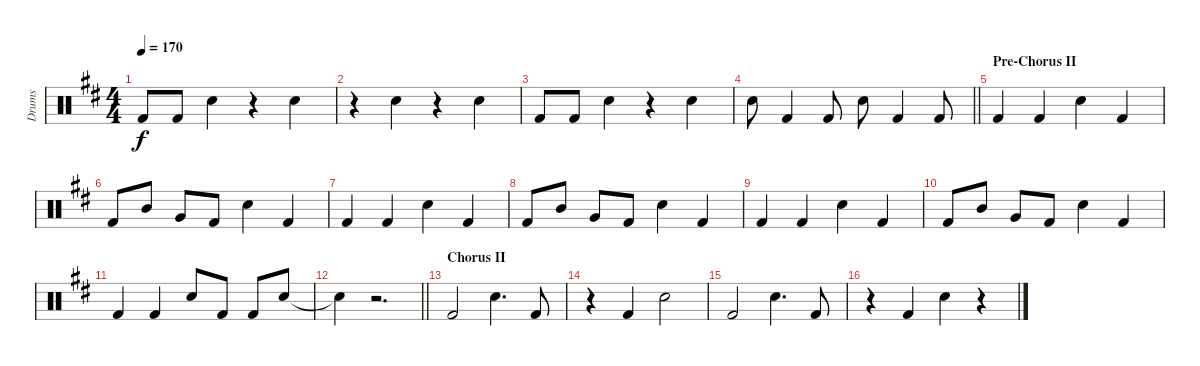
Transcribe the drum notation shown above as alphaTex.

\track ("Drums" "Drums") {instrument percussion}
\staff {score}
\articulation defaults
\ts (4 4)
\tempo 170
\clef neutral
\ks d "Kick (hit) 2".8{dy f} "Kick (hit) 2".8 "Electric Snare (hit)".4
r.4 "Electric Snare (hit)".4 |
r.4 "Electric Snare (hit)".4 r.4 "Electric Snare (hit)".4 |
"Kick (hit) 2".8 "Kick (hit) 2".8 "Electric Snare (hit)".4 r.4 "Electric Snare (hit)".4 |
\barLineRight lightlight "Electric Snare (hit)".8 "Kick (hit) 2".4 "Kick (hit) 2".8 "Electric Snare (hit)".8 "Kick (hit) 2".4 "Kick (hit) 2".8
|
\section ("" "Pre-Chorus II")
"Kick (hit) 2".4 "Kick (hit) 2".4 "Snare (hit) 2".4 "Kick (hit) 2".4 |
"Kick (hit) 2".8 "Mid Tom (hit)".8 "Very Low Tom (hit)".8 "Kick (hit) 2".8 "Electric Snare (hit)".4 "Kick (hit) 2".4 |
"Kick (hit) 2".4 "Kick (hit) 2".4 "Snare (hit) 2".4 "Kick (hit) 2".4 |
"Kick (hit) 2".8 "Mid Tom (hit)".8 "Very Low Tom (hit)".8 "Kick (hit) 2".8 "Electric Snare (hit)".4 "Kick (hit) 2".4 |
"Kick (hit) 2".4 "Kick (hit) 2".4 "Snare (hit) 2".4 "Kick (hit) 2".4 |
"Kick (hit) 2".8 "Mid Tom (hit)".8 "Very Low Tom (hit)".8 "Kick (hit) 2".8 "Electric Snare (hit)".4 "Kick (hit) 2".4 |
"Kick (hit) 2".4 "Kick (hit) 2".4 "Electric Snare (hit)".8 "Kick (hit) 2".8 "Kick (hit) 2".8 "Electric Snare (hit)".8 |
\barLineRight lightlight "Electric Snare (hit)"{t}.4
r.2{d} |
\section ("" "Chorus II")
"Kick (hit) 2".2 "Electric Snare (hit)".4{d} "Kick (hit) 2".8 |
r.4 "Kick (hit) 2".4 "Electric Snare (hit)".2 |
"Kick (hit) 2".2 "Electric Snare (hit)".4{d} "Kick (hit) 2".8 |
r.4 "Kick (hit) 2".4 "Electric Snare (hit)".4 r.4
